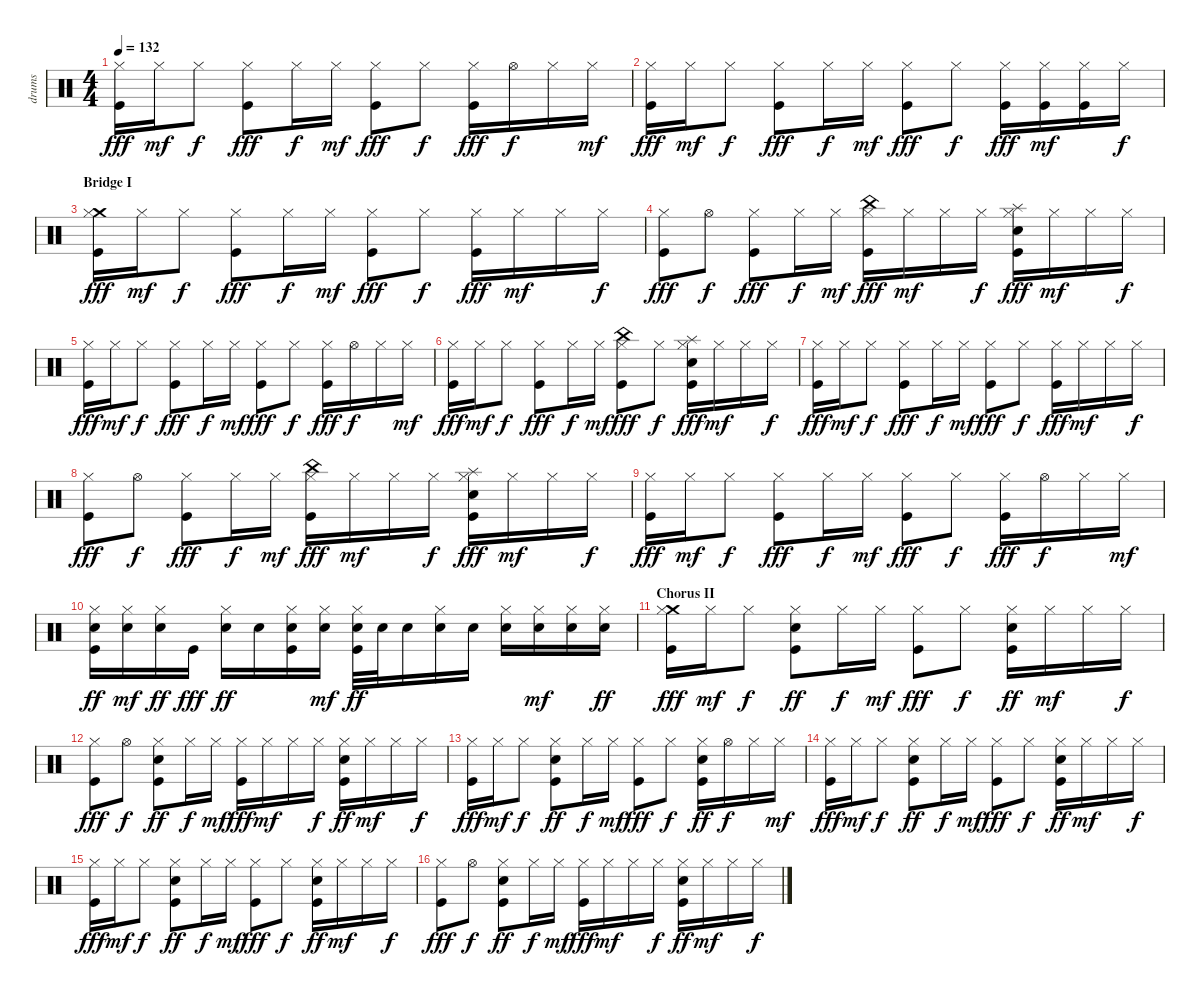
\track ("drums" "drums") {instrument percussion}
\staff {score}
\articulation defaults
\ts (4 4)
\tempo 132
\clef neutral
\ks c
("Kick (hit)" "Hi-Hat (closed)").16{dy fff} "Hi-Hat (closed)".16{dy mf} "Hi-Hat (closed)".8{dy f} ("Kick (hit)" "Hi-Hat (closed)").8{dy fff} "Hi-Hat (closed)".16{dy f} "Hi-Hat (closed)".16{dy mf} ("Kick (hit)" "Hi-Hat (closed)").8{dy fff} "Hi-Hat (closed)".8{dy f} ("Kick (hit)" "Hi-Hat (closed)").16{dy fff} "Hi-Hat (open)".16{dy f} "Hi-Hat (closed)".16 "Hi-Hat (closed)".16{dy mf} |
("Kick (hit)" "Hi-Hat (closed)").16{dy fff} "Hi-Hat (closed)".16{dy mf} "Hi-Hat (closed)".8{dy f} ("Kick (hit)" "Hi-Hat (closed)").8{dy fff} "Hi-Hat (closed)".16{dy f} "Hi-Hat (closed)".16{dy mf} ("Kick (hit)" "Hi-Hat (closed)").8{dy fff} "Hi-Hat (closed)".8{dy f} ("Kick (hit)" "Hi-Hat (closed)").16{dy fff} ("Kick (hit)" "Hi-Hat (closed)").16{dy mf} ("Kick (hit)" "Hi-Hat (closed)").16 "Hi-Hat (closed)".16{dy f} |
\section ("" "Bridge I")
("Kick (hit)" "Crash medium (hit)" "Hi-Hat (closed)").16{dy fff} "Hi-Hat (closed)".16{dy mf} "Hi-Hat (closed)".8{dy f} ("Kick (hit)" "Hi-Hat (closed)").8{dy fff} "Hi-Hat (closed)".16{dy f} "Hi-Hat (closed)".16{dy mf} ("Kick (hit)" "Hi-Hat (closed)").8{dy fff} "Hi-Hat (closed)".8{dy f} ("Kick (hit)" "Hi-Hat (closed)").16{dy fff} "Hi-Hat (closed)".16{dy mf} "Hi-Hat (closed)".16 "Hi-Hat (closed)".16{dy f} |
("Kick (hit)" "Hi-Hat (closed)").8{dy fff} "Hi-Hat (open)".8{dy f} ("Kick (hit)" "Hi-Hat (closed)").8{dy fff} "Hi-Hat (closed)".16{dy f} "Hi-Hat (closed)".16{dy mf} ("Kick (hit)" "Hi-Hat (closed)" "China (hit)").16{dy fff} "Hi-Hat (closed)".16{dy mf} "Hi-Hat (closed)".16 "Hi-Hat (closed)".16{dy f} ("Kick (hit)" "Hi-Hat (closed)" "Splash (hit)" "Hand Clap (hit)").16{dy fff} "Hi-Hat (closed)".16{dy mf} "Hi-Hat (closed)".16 "Hi-Hat (closed)".16{dy f} |
("Kick (hit)" "Hi-Hat (closed)").16{dy fff} "Hi-Hat (closed)".16{dy mf} "Hi-Hat (closed)".8{dy f} ("Kick (hit)" "Hi-Hat (closed)").8{dy fff} "Hi-Hat (closed)".16{dy f} "Hi-Hat (closed)".16{dy mf} ("Kick (hit)" "Hi-Hat (closed)").8{dy fff} "Hi-Hat (closed)".8{dy f} ("Kick (hit)" "Hi-Hat (closed)").16{dy fff} "Hi-Hat (open)".16{dy f} "Hi-Hat (closed)".16 "Hi-Hat (closed)".16{dy mf} |
("Kick (hit)" "Hi-Hat (closed)").16{dy fff} "Hi-Hat (closed)".16{dy mf} "Hi-Hat (closed)".8{dy f} ("Kick (hit)" "Hi-Hat (closed)").8{dy fff} "Hi-Hat (closed)".16{dy f} "Hi-Hat (closed)".16{dy mf} ("Kick (hit)" "Hi-Hat (closed)" "China (hit)").8{dy fff} "Hi-Hat (closed)".8{dy f} ("Kick (hit)" "Hi-Hat (closed)" "Splash (hit)" "Hand Clap (hit)").16{dy fff} "Hi-Hat (closed)".16{dy mf} "Hi-Hat (closed)".16 "Hi-Hat (closed)".16{dy f} |
("Kick (hit)" "Hi-Hat (closed)").16{dy fff} "Hi-Hat (closed)".16{dy mf} "Hi-Hat (closed)".8{dy f} ("Kick (hit)" "Hi-Hat (closed)").8{dy fff} "Hi-Hat (closed)".16{dy f} "Hi-Hat (closed)".16{dy mf} ("Kick (hit)" "Hi-Hat (closed)").8{dy fff} "Hi-Hat (closed)".8{dy f} ("Kick (hit)" "Hi-Hat (closed)").16{dy fff} "Hi-Hat (closed)".16{dy mf} "Hi-Hat (closed)".16 "Hi-Hat (closed)".16{dy f} |
("Kick (hit)" "Hi-Hat (closed)").8{dy fff} "Hi-Hat (open)".8{dy f} ("Kick (hit)" "Hi-Hat (closed)").8{dy fff} "Hi-Hat (closed)".16{dy f} "Hi-Hat (closed)".16{dy mf} ("Kick (hit)" "Hi-Hat (closed)" "China (hit)").16{dy fff} "Hi-Hat (closed)".16{dy mf} "Hi-Hat (closed)".16 "Hi-Hat (closed)".16{dy f} ("Kick (hit)" "Hi-Hat (closed)" "Splash (hit)" "Hand Clap (hit)").16{dy fff} "Hi-Hat (closed)".16{dy mf} "Hi-Hat (closed)".16 "Hi-Hat (closed)".16{dy f} |
("Kick (hit)" "Hi-Hat (closed)").16{dy fff} "Hi-Hat (closed)".16{dy mf} "Hi-Hat (closed)".8{dy f} ("Kick (hit)" "Hi-Hat (closed)").8{dy fff} "Hi-Hat (closed)".16{dy f} "Hi-Hat (closed)".16{dy mf} ("Kick (hit)" "Hi-Hat (closed)").8{dy fff} "Hi-Hat (closed)".8{dy f} ("Kick (hit)" "Hi-Hat (closed)").16{dy fff} "Hi-Hat (open)".16{dy f} "Hi-Hat (closed)".16 "Hi-Hat (closed)".16{dy mf} |
("Kick (hit)" "Electric Snare (hit)" "Hi-Hat (closed)").16{dy ff} ("Electric Snare (hit)" "Hi-Hat (closed)").16{dy mf} ("Electric Snare (hit)" "Hi-Hat (closed)").16{dy ff} "Kick (hit)".16{dy fff} ("Electric Snare (hit)" "Hi-Hat (closed)").16{dy ff} "Electric Snare (hit)".16 ("Kick (hit)" "Electric Snare (hit)" "Hi-Hat (closed)").16 ("Electric Snare (hit)" "Hi-Hat (closed)").16{dy mf} ("Kick (hit)" "Electric Snare (hit)" "Hi-Hat (closed)").32{dy ff} "Electric Snare (hit)".32 "Electric Snare (hit)".16 ("Electric Snare (hit)" "Hi-Hat (closed)").16 "Electric Snare (hit)".16 ("Electric Snare (hit)" "Hi-Hat (closed)").16 ("Electric Snare (hit)" "Hi-Hat (closed)").16{dy mf} ("Electric Snare (hit)" "Hi-Hat (closed)").16 ("Electric Snare (hit)" "Hi-Hat (closed)").16{dy ff} |
\section ("" "Chorus II")
("Kick (hit)" "Crash medium (hit)" "Hi-Hat (closed)").16{dy fff} "Hi-Hat (closed)".16{dy mf} "Hi-Hat (closed)".8{dy f} ("Kick (hit)" "Electric Snare (hit)" "Hi-Hat (closed)").8{dy ff} "Hi-Hat (closed)".16{dy f} "Hi-Hat (closed)".16{dy mf} ("Kick (hit)" "Hi-Hat (closed)").8{dy fff} "Hi-Hat (closed)".8{dy f} ("Kick (hit)" "Electric Snare (hit)" "Hi-Hat (closed)").16{dy ff} "Hi-Hat (closed)".16{dy mf} "Hi-Hat (closed)".16 "Hi-Hat (closed)".16{dy f} |
("Kick (hit)" "Hi-Hat (closed)").8{dy fff} "Hi-Hat (open)".8{dy f} ("Kick (hit)" "Electric Snare (hit)" "Hi-Hat (closed)").8{dy ff} "Hi-Hat (closed)".16{dy f} "Hi-Hat (closed)".16{dy mf} ("Kick (hit)" "Hi-Hat (closed)").16{dy fff} "Hi-Hat (closed)".16{dy mf} "Hi-Hat (closed)".16 "Hi-Hat (closed)".16{dy f} ("Kick (hit)" "Electric Snare (hit)" "Hi-Hat (closed)").16{dy ff} "Hi-Hat (closed)".16{dy mf} "Hi-Hat (closed)".16 "Hi-Hat (closed)".16{dy f} |
("Kick (hit)" "Hi-Hat (closed)").16{dy fff} "Hi-Hat (closed)".16{dy mf} "Hi-Hat (closed)".8{dy f} ("Kick (hit)" "Electric Snare (hit)" "Hi-Hat (closed)").8{dy ff} "Hi-Hat (closed)".16{dy f} "Hi-Hat (closed)".16{dy mf} ("Kick (hit)" "Hi-Hat (closed)").8{dy fff} "Hi-Hat (closed)".8{dy f} ("Kick (hit)" "Electric Snare (hit)" "Hi-Hat (closed)").16{dy ff} "Hi-Hat (open)".16{dy f} "Hi-Hat (closed)".16 "Hi-Hat (closed)".16{dy mf} |
("Kick (hit)" "Hi-Hat (closed)").16{dy fff} "Hi-Hat (closed)".16{dy mf} "Hi-Hat (closed)".8{dy f} ("Kick (hit)" "Electric Snare (hit)" "Hi-Hat (closed)").8{dy ff} "Hi-Hat (closed)".16{dy f} "Hi-Hat (closed)".16{dy mf} ("Kick (hit)" "Hi-Hat (closed)").8{dy fff} "Hi-Hat (closed)".8{dy f} ("Kick (hit)" "Electric Snare (hit)" "Hi-Hat (closed)").16{dy ff} "Hi-Hat (closed)".16{dy mf} "Hi-Hat (closed)".16 "Hi-Hat (closed)".16{dy f} |
("Kick (hit)" "Hi-Hat (closed)").16{dy fff} "Hi-Hat (closed)".16{dy mf} "Hi-Hat (closed)".8{dy f} ("Kick (hit)" "Electric Snare (hit)" "Hi-Hat (closed)").8{dy ff} "Hi-Hat (closed)".16{dy f} "Hi-Hat (closed)".16{dy mf} ("Kick (hit)" "Hi-Hat (closed)").8{dy fff} "Hi-Hat (closed)".8{dy f} ("Kick (hit)" "Electric Snare (hit)" "Hi-Hat (closed)").16{dy ff} "Hi-Hat (closed)".16{dy mf} "Hi-Hat (closed)".16 "Hi-Hat (closed)".16{dy f} |
("Kick (hit)" "Hi-Hat (closed)").8{dy fff} "Hi-Hat (open)".8{dy f} ("Kick (hit)" "Electric Snare (hit)" "Hi-Hat (closed)").8{dy ff} "Hi-Hat (closed)".16{dy f} "Hi-Hat (closed)".16{dy mf} ("Kick (hit)" "Hi-Hat (closed)").16{dy fff} "Hi-Hat (closed)".16{dy mf} "Hi-Hat (closed)".16 "Hi-Hat (closed)".16{dy f} ("Kick (hit)" "Electric Snare (hit)" "Hi-Hat (closed)").16{dy ff} "Hi-Hat (closed)".16{dy mf} "Hi-Hat (closed)".16 "Hi-Hat (closed)".16{dy f}
